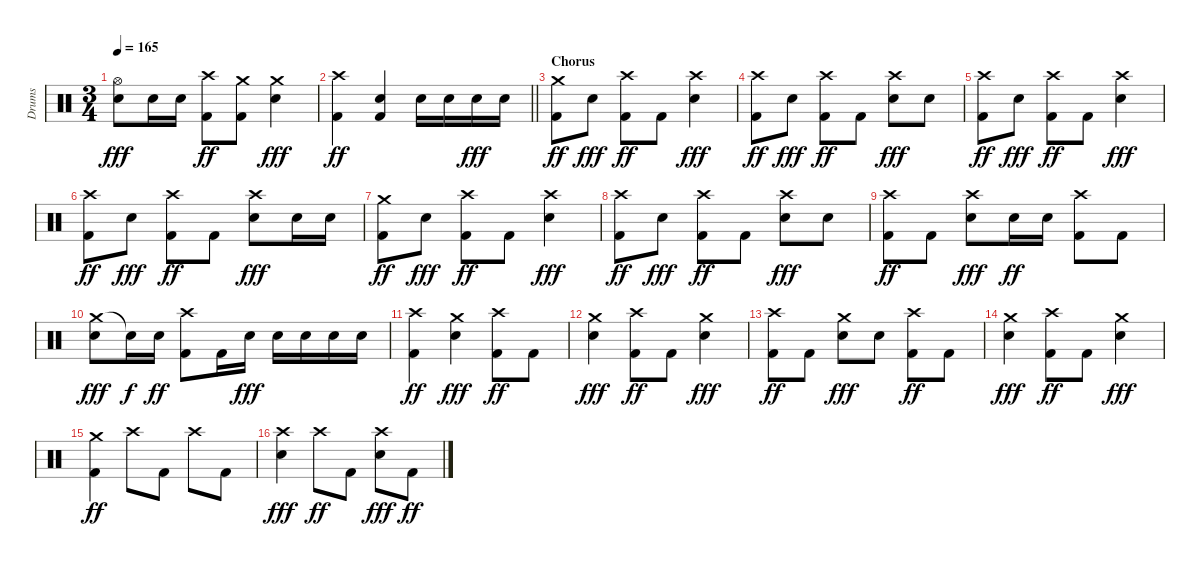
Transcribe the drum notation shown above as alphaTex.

\track ("Drums" "Drums") {instrument percussion}
\staff {score}
\articulation defaults
\ts (3 4)
\tempo 165
\clef neutral
\ks c
("Hi-Hat (open)" "Snare (hit) 2").8{dy fff} "Snare (hit) 2".16 "Snare (hit) 2".16 ("Crash high (hit)" "Kick (hit) 2").8{dy ff} ("Crash medium (hit)" "Kick (hit) 2").8 ("Crash medium (hit)" "Snare (hit) 2").4{dy fff} |
\barLineRight lightlight
("Crash high (hit)" "Kick (hit) 2").4{dy ff} ("Snare (hit) 2" "Kick (hit) 2").4 "Snare (hit) 2".16 "Snare (hit) 2".16 "Snare (hit) 2".16{dy fff} "Snare (hit) 2".16 |
\section ("" "Chorus")
("Crash medium (hit)" "Kick (hit) 2").8{dy ff} "Snare (hit) 2".8{dy fff} ("Crash high (hit)" "Kick (hit) 2").8{dy ff} "Kick (hit) 2".8 ("Crash high (hit)" "Snare (hit) 2").4{dy fff} |
("Crash high (hit)" "Kick (hit) 2").8{dy ff} "Snare (hit) 2".8{dy fff} ("Crash high (hit)" "Kick (hit) 2").8{dy ff} "Kick (hit) 2".8 ("Crash high (hit)" "Snare (hit) 2").8{dy fff} "Snare (hit) 2".8 |
("Crash high (hit)" "Kick (hit) 2").8{dy ff} "Snare (hit) 2".8{dy fff} ("Crash high (hit)" "Kick (hit) 2").8{dy ff} "Kick (hit) 2".8 ("Crash high (hit)" "Snare (hit) 2").4{dy fff} |
("Crash high (hit)" "Kick (hit) 2").8{dy ff} "Snare (hit) 2".8{dy fff} ("Crash high (hit)" "Kick (hit) 2").8{dy ff} "Kick (hit) 2".8 ("Crash high (hit)" "Snare (hit) 2").8{dy fff} "Snare (hit) 2".16 "Snare (hit) 2".16 |
("Crash medium (hit)" "Kick (hit) 2").8{dy ff} "Snare (hit) 2".8{dy fff} ("Crash high (hit)" "Kick (hit) 2").8{dy ff} "Kick (hit) 2".8 ("Crash high (hit)" "Snare (hit) 2").4{dy fff} |
("Crash high (hit)" "Kick (hit) 2").8{dy ff} "Snare (hit) 2".8{dy fff} ("Crash high (hit)" "Kick (hit) 2").8{dy ff} "Kick (hit) 2".8 ("Crash high (hit)" "Snare (hit) 2").8{dy fff} "Snare (hit) 2".8 |
("Crash high (hit)" "Kick (hit) 2").8{dy ff} "Kick (hit) 2".8 ("Crash high (hit)" "Snare (hit) 2").8{dy fff} "Snare (hit) 2".16{dy ff} "Snare (hit) 2".16 ("Crash high (hit)" "Kick (hit) 2").8 "Kick (hit) 2".8 |
("Crash medium (hit)" "Snare (hit) 2").8{dy fff} "Snare (hit)"{t}.16{dy f} "Snare (hit) 2".16{dy ff} ("Crash high (hit)" "Kick (hit) 2").8 "Kick (hit) 2".16 "Snare (hit) 2".16{dy fff} "Snare (hit) 2".16 "Snare (hit) 2".16 "Snare (hit) 2".16 "Snare (hit) 2".16 |
("Crash high (hit)" "Kick (hit) 2").4{dy ff} ("Crash medium (hit)" "Snare (hit) 2").4{dy fff} ("Crash high (hit)" "Kick (hit) 2").8{dy ff} "Kick (hit) 2".8 |
("Crash medium (hit)" "Snare (hit) 2").4{dy fff} ("Crash high (hit)" "Kick (hit) 2").8{dy ff} "Kick (hit) 2".8 ("Crash medium (hit)" "Snare (hit) 2").4{dy fff} |
("Crash high (hit)" "Kick (hit) 2").8{dy ff} "Kick (hit) 2".8 ("Crash medium (hit)" "Snare (hit) 2").8{dy fff} "Snare (hit) 2".8 ("Crash high (hit)" "Kick (hit) 2").8{dy ff} "Kick (hit) 2".8 |
("Crash medium (hit)" "Snare (hit) 2").4{dy fff} ("Crash high (hit)" "Kick (hit) 2").8{dy ff} "Kick (hit) 2".8 ("Crash medium (hit)" "Snare (hit) 2").4{dy fff} |
("Crash medium (hit)" "Kick (hit) 2").4{dy ff} "Crash high (hit)".8 "Kick (hit) 2".8 "Crash high (hit)".8 "Kick (hit) 2".8 |
("Crash high (hit)" "Snare (hit) 2").4{dy fff} "Crash high (hit)".8{dy ff} "Kick (hit) 2".8 ("Crash high (hit)" "Snare (hit) 2").8{dy fff} "Kick (hit) 2".8{dy ff}
